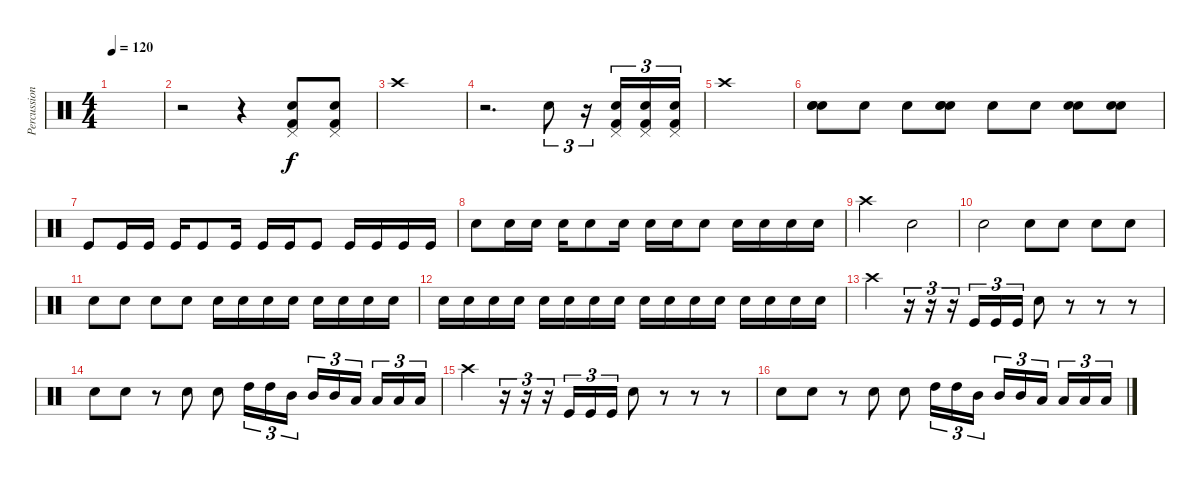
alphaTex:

\track ("Percussion" "Percussion") {instrument percussion}
\staff {score}
\articulation defaults
\ts (4 4)
\tempo 120
\clef neutral
\ks c
|
r.2 r.4 ("Kick (hit) 2" "Snare (hit) 2" "Pedal Hi-Hat (hit)").8 ("Kick (hit) 2" "Snare (hit) 2" "Pedal Hi-Hat (hit)").8 |
"Crash high (hit)".1 |
r.2{d} "Snare (hit) 2".8{tu (3 2)} r.16{tu (3 2)} ("Kick (hit) 2" "Pedal Hi-Hat (hit)" "Snare (hit) 2").16{tu (3 2)} ("Kick (hit) 2" "Pedal Hi-Hat (hit)" "Snare (hit) 2").16{tu (3 2)} ("Kick (hit) 2" "Pedal Hi-Hat (hit)" "Snare (hit) 2").16{tu (3 2)} |
"Crash high (hit)".1 |
("Snare (hit) 2" "Electric Snare (hit)" "Electric Snare (hit)").8 "Electric Snare (hit)".8 "Electric Snare (hit)".8 ("Snare (hit) 2" "Electric Snare (hit)" "Electric Snare (hit)").8 "Electric Snare (hit)".8 "Electric Snare (hit)".8 ("Snare (hit) 2" "Electric Snare (hit)").8 ("Snare (hit) 2" "Electric Snare (hit)").8 |
"Kick (hit)".8 "Kick (hit)".16 "Kick (hit)".16 "Kick (hit)".16 "Kick (hit)".8 "Kick (hit)".16 "Kick (hit)".16 "Kick (hit)".16 "Kick (hit)".8 "Kick (hit)".16 "Kick (hit)".16 "Kick (hit)".16 "Kick (hit)".16 |
"Electric Snare (hit)".8 "Electric Snare (hit)".16 "Electric Snare (hit)".16 "Electric Snare (hit)".16 "Electric Snare (hit)".8 "Electric Snare (hit)".16 "Electric Snare (hit)".16 "Electric Snare (hit)".16 "Electric Snare (hit)".8 "Electric Snare (hit)".16 "Electric Snare (hit)".16 "Electric Snare (hit)".16 "Electric Snare (hit)".16 |
"Crash high (hit)".2 "Electric Snare (hit)".2 |
"Electric Snare (hit)".2 "Electric Snare (hit)".8 "Electric Snare (hit)".8 "Electric Snare (hit)".8 "Electric Snare (hit)".8 |
"Electric Snare (hit)".8 "Electric Snare (hit)".8 "Electric Snare (hit)".8 "Electric Snare (hit)".8 "Electric Snare (hit)".16 "Electric Snare (hit)".16 "Electric Snare (hit)".16 "Electric Snare (hit)".16 "Electric Snare (hit)".16 "Electric Snare (hit)".16 "Electric Snare (hit)".16 "Electric Snare (hit)".16 |
"Electric Snare (hit)".16 "Electric Snare (hit)".16 "Electric Snare (hit)".16 "Electric Snare (hit)".16 "Electric Snare (hit)".16 "Electric Snare (hit)".16 "Electric Snare (hit)".16 "Electric Snare (hit)".16 "Electric Snare (hit)".16 "Electric Snare (hit)".16 "Electric Snare (hit)".16 "Electric Snare (hit)".16 "Electric Snare (hit)".16 "Electric Snare (hit)".16 "Electric Snare (hit)".16 "Electric Snare (hit)".16 |
"Crash high (hit)".4 r.16{tu (3 2)} r.16{tu (3 2)} r.16{tu (3 2)} "Kick (hit)".16{tu (3 2)} "Kick (hit)".16{tu (3 2)} "Kick (hit)".16{tu (3 2)} "Electric Snare (hit)".8 r.8 r.8 r.8 |
"Electric Snare (hit)".8 "Electric Snare (hit)".8 r.8 "Electric Snare (hit)".8 "Electric Snare (hit)".8 "High Tom (hit)".16{tu (3 2)} "High Tom (hit)".16{tu (3 2)} "Mid Tom (hit)".16{tu (3 2)} "Mid Tom (hit)".16{tu (3 2)} "Mid Tom (hit)".16{tu (3 2)} "Low Tom (hit)".16{tu (3 2)} "Low Tom (hit)".16{tu (3 2)} "Low Tom (hit)".16{tu (3 2)} "Low Tom (hit)".16{tu (3 2)} |
"Crash high (hit)".4 r.16{tu (3 2)} r.16{tu (3 2)} r.16{tu (3 2)} "Kick (hit)".16{tu (3 2)} "Kick (hit)".16{tu (3 2)} "Kick (hit)".16{tu (3 2)} "Electric Snare (hit)".8 r.8 r.8 r.8 |
"Electric Snare (hit)".8 "Electric Snare (hit)".8 r.8 "Electric Snare (hit)".8 "Electric Snare (hit)".8 "High Tom (hit)".16{tu (3 2)} "High Tom (hit)".16{tu (3 2)} "Mid Tom (hit)".16{tu (3 2)} "Mid Tom (hit)".16{tu (3 2)} "Mid Tom (hit)".16{tu (3 2)} "Low Tom (hit)".16{tu (3 2)} "Low Tom (hit)".16{tu (3 2)} "Low Tom (hit)".16{tu (3 2)} "Low Tom (hit)".16{tu (3 2)}
